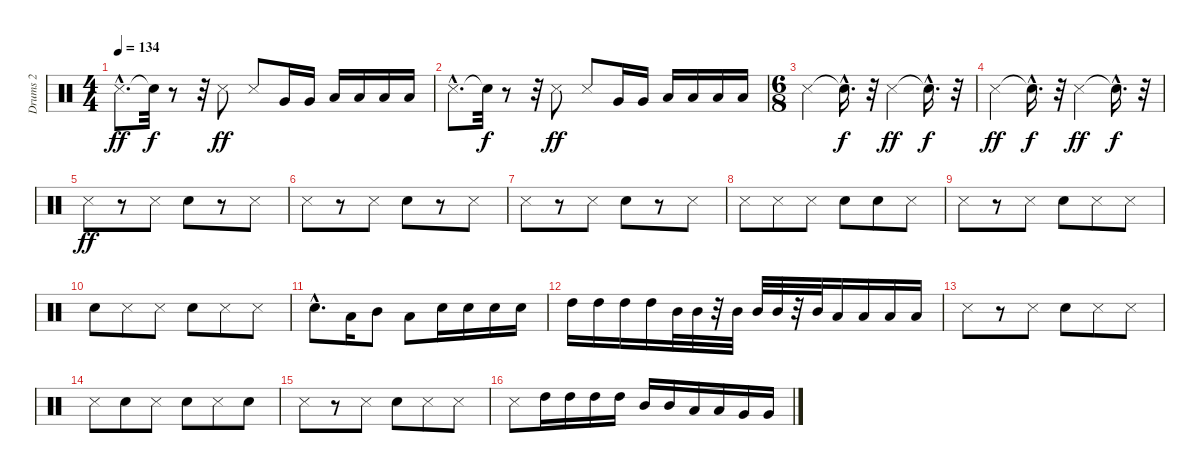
\track ("Drums 2" "Drums 2") {instrument percussion}
\staff {score}
\articulation defaults
\ts (4 4)
\tempo 134
\clef neutral
\ks c "Metronome (hit)"{hac}.8{d dy ff} "Snare (hit)"{t}.32{dy f}
r.8 r.32 "Metronome (hit)".8{dy ff} "Metronome (hit)".8 "Very Low Tom (hit)".16 "Very Low Tom (hit)".16 "Low Floor Tom (hit)".16 "Low Floor Tom (hit)".16 "Low Floor Tom (hit)".16 "Low Floor Tom (hit)".16 |
"Metronome (hit)"{hac}.8{d} "Snare (hit)"{t}.32{dy f} r.8 r.32 "Metronome (hit)".8{dy ff} "Metronome (hit)".8 "Very Low Tom (hit)".16 "Very Low Tom (hit)".16 "Low Floor Tom (hit)".16 "Low Floor Tom (hit)".16 "Low Floor Tom (hit)".16 "Low Floor Tom (hit)".16 |
\ts (6 8)
"Metronome (hit)".4 "Snare (hit)"{hac t}.16{d dy f} r.32 "Metronome (hit)".4{dy ff} "Snare (hit)"{hac t}.16{d dy f} r.32 |
"Metronome (hit)".4{dy ff} "Snare (hit)"{hac t}.16{d dy f} r.32 "Metronome (hit)".4{dy ff} "Snare (hit)"{hac t}.16{d dy f} r.32 |
"Metronome (hit)".8{dy ff} r.8 "Metronome (hit)".8 "Snare (hit) 2".8 r.8 "Metronome (hit)".8 |
"Metronome (hit)".8 r.8 "Metronome (hit)".8 "Snare (hit) 2".8 r.8 "Metronome (hit)".8 |
"Metronome (hit)".8 r.8 "Metronome (hit)".8 "Snare (hit) 2".8 r.8 "Metronome (hit)".8 |
"Metronome (hit)".8 "Metronome (hit)".8 "Metronome (hit)".8 "Snare (hit) 2".8 "Snare (hit) 2".8 "Metronome (hit)".8 |
"Metronome (hit)".8 r.8 "Metronome (hit)".8 "Snare (hit) 2".8 "Metronome (hit)".8 "Metronome (hit)".8 |
"Snare (hit) 2".8 "Metronome (hit)".8 "Metronome (hit)".8 "Snare (hit) 2".8 "Metronome (hit)".8 "Metronome (hit)".8 |
"Snare (hit) 2"{hac}.8{d} "Low Tom (hit)".16 "Mid Tom (hit)".8 "Low Tom (hit)".8 "Snare (hit) 2".16 "Snare (hit) 2".16 "Snare (hit) 2".16 "Snare (hit) 2".16 |
"High Tom (hit)".16 "High Tom (hit)".16 "High Tom (hit)".16 "High Tom (hit)".16 "Mid Tom (hit)".32 "Mid Tom (hit)".32 r.32 "Mid Tom (hit)".32 "Mid Tom (hit)".32 "Mid Tom (hit)".32 r.32 "Mid Tom (hit)".32 "Low Tom (hit)".16 "Low Tom (hit)".16 "Low Floor Tom (hit)".16 "Low Floor Tom (hit)".16 |
"Metronome (hit)".8 r.8 "Metronome (hit)".8 "Snare (hit) 2".8 "Metronome (hit)".8 "Metronome (hit)".8 |
"Metronome (hit)".8 "Snare (hit) 2".8 "Metronome (hit)".8 "Snare (hit) 2".8 "Metronome (hit)".8 "Snare (hit) 2".8 |
"Metronome (hit)".8 r.8 "Metronome (hit)".8 "Snare (hit) 2".8 "Metronome (hit)".8 "Metronome (hit)".8 |
"Metronome (hit)".8 "High Tom (hit)".16 "High Tom (hit)".16 "High Tom (hit)".16 "High Tom (hit)".16 "Mid Tom (hit)".16 "Mid Tom (hit)".16 "Low Tom (hit)".16 "Low Tom (hit)".16 "Very Low Tom (hit)".16 "Very Low Tom (hit)".16
